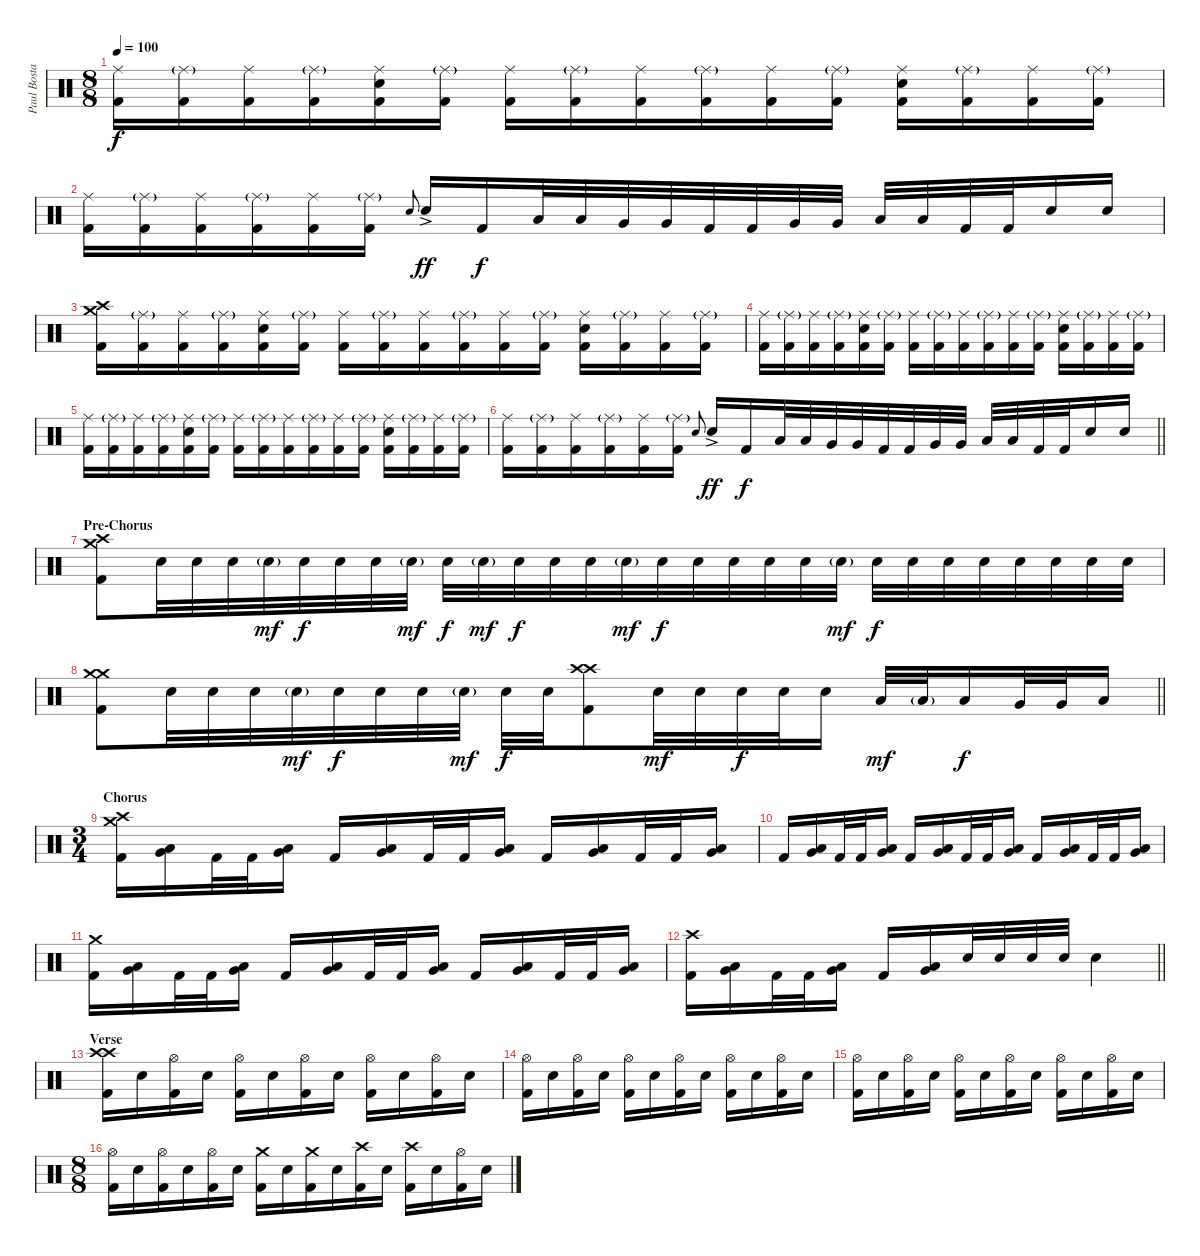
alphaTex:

\track ("Paul Bostaph (Last Album 2 Feature Paul)" "Paul Bosta") {instrument percussion}
\staff {score}
\articulation defaults
\ts (8 8)
\tempo 100
\clef neutral
\ks c
("Ride (middle)" "Kick (hit) 2").16{dy f} ("Ride (middle)"{g} "Kick (hit) 2").16 ("Ride (middle)" "Kick (hit) 2").16 ("Ride (middle)"{g} "Kick (hit) 2").16 ("Ride (middle)" "Electric Snare (hit)" "Kick (hit) 2").16 ("Ride (middle)"{g} "Kick (hit) 2").16 ("Ride (middle)" "Kick (hit) 2").16 ("Ride (middle)"{g} "Kick (hit) 2").16 ("Ride (middle)" "Kick (hit) 2").16 ("Ride (middle)"{g} "Kick (hit) 2").16 ("Ride (middle)" "Kick (hit) 2").16 ("Ride (middle)"{g} "Kick (hit) 2").16 ("Ride (middle)" "Electric Snare (hit)" "Kick (hit) 2").16 ("Ride (middle)"{g} "Kick (hit) 2").16 ("Ride (middle)" "Kick (hit) 2").16 ("Ride (middle)"{g} "Kick (hit) 2").16 |
("Ride (middle)" "Kick (hit) 2").16 ("Ride (middle)"{g} "Kick (hit) 2").16 ("Ride (middle)" "Kick (hit) 2").16 ("Ride (middle)"{g} "Kick (hit) 2").16 ("Ride (middle)" "Kick (hit) 2").16 ("Ride (middle)"{g} "Kick (hit) 2").16 "Electric Snare (hit)".8{gr onbeat} "Electric Snare (hit)"{ac}.16{dy ff} "Kick (hit) 2".16{dy f} "Low Tom (hit)".32 "Low Tom (hit)".32 "Very Low Tom (hit)".32 "Very Low Tom (hit)".32 "Kick (hit) 2".32 "Kick (hit) 2".32 "Very Low Tom (hit)".32 "Very Low Tom (hit)".32 "Low Floor Tom (hit)".32 "Low Floor Tom (hit)".32 "Kick (hit) 2".32 "Kick (hit) 2".32 "Electric Snare (hit)".16 "Electric Snare (hit)".16 |
("Crash medium (hit)" "Crash high (hit)" "Kick (hit) 2").16 ("Ride (middle)"{g} "Kick (hit) 2").16 ("Ride (middle)" "Kick (hit) 2").16 ("Ride (middle)"{g} "Kick (hit) 2").16 ("Ride (middle)" "Electric Snare (hit)" "Kick (hit) 2").16 ("Ride (middle)"{g} "Kick (hit) 2").16 ("Ride (middle)" "Kick (hit) 2").16 ("Ride (middle)"{g} "Kick (hit) 2").16 ("Ride (middle)" "Kick (hit) 2").16 ("Ride (middle)"{g} "Kick (hit) 2").16 ("Ride (middle)" "Kick (hit) 2").16 ("Ride (middle)"{g} "Kick (hit) 2").16 ("Ride (middle)" "Electric Snare (hit)" "Kick (hit) 2").16 ("Ride (middle)"{g} "Kick (hit) 2").16 ("Ride (middle)" "Kick (hit) 2").16 ("Ride (middle)"{g} "Kick (hit) 2").16 |
("Ride (middle)" "Kick (hit) 2").16 ("Ride (middle)"{g} "Kick (hit) 2").16 ("Ride (middle)" "Kick (hit) 2").16 ("Ride (middle)"{g} "Kick (hit) 2").16 ("Ride (middle)" "Electric Snare (hit)" "Kick (hit) 2").16 ("Ride (middle)"{g} "Kick (hit) 2").16 ("Ride (middle)" "Kick (hit) 2").16 ("Ride (middle)"{g} "Kick (hit) 2").16 ("Ride (middle)" "Kick (hit) 2").16 ("Ride (middle)"{g} "Kick (hit) 2").16 ("Ride (middle)" "Kick (hit) 2").16 ("Ride (middle)"{g} "Kick (hit) 2").16 ("Ride (middle)" "Electric Snare (hit)" "Kick (hit) 2").16 ("Ride (middle)"{g} "Kick (hit) 2").16 ("Ride (middle)" "Kick (hit) 2").16 ("Ride (middle)"{g} "Kick (hit) 2").16 |
("Ride (middle)" "Kick (hit) 2").16 ("Ride (middle)"{g} "Kick (hit) 2").16 ("Ride (middle)" "Kick (hit) 2").16 ("Ride (middle)"{g} "Kick (hit) 2").16 ("Ride (middle)" "Electric Snare (hit)" "Kick (hit) 2").16 ("Ride (middle)"{g} "Kick (hit) 2").16 ("Ride (middle)" "Kick (hit) 2").16 ("Ride (middle)"{g} "Kick (hit) 2").16 ("Ride (middle)" "Kick (hit) 2").16 ("Ride (middle)"{g} "Kick (hit) 2").16 ("Ride (middle)" "Kick (hit) 2").16 ("Ride (middle)"{g} "Kick (hit) 2").16 ("Ride (middle)" "Electric Snare (hit)" "Kick (hit) 2").16 ("Ride (middle)"{g} "Kick (hit) 2").16 ("Ride (middle)" "Kick (hit) 2").16 ("Ride (middle)"{g} "Kick (hit) 2").16 |
\barLineRight lightlight
("Ride (middle)" "Kick (hit) 2").16 ("Ride (middle)"{g} "Kick (hit) 2").16 ("Ride (middle)" "Kick (hit) 2").16 ("Ride (middle)"{g} "Kick (hit) 2").16 ("Ride (middle)" "Kick (hit) 2").16 ("Ride (middle)"{g} "Kick (hit) 2").16 "Electric Snare (hit)".8{gr onbeat} "Electric Snare (hit)"{ac}.16{dy ff} "Kick (hit) 2".16{dy f} "Low Tom (hit)".32 "Low Tom (hit)".32 "Very Low Tom (hit)".32 "Very Low Tom (hit)".32 "Kick (hit) 2".32 "Kick (hit) 2".32 "Very Low Tom (hit)".32 "Very Low Tom (hit)".32 "Low Floor Tom (hit)".32 "Low Floor Tom (hit)".32 "Kick (hit) 2".32 "Kick (hit) 2".32 "Electric Snare (hit)".16 "Electric Snare (hit)".16 |
\section ("" "Pre-Chorus")
("Crash high (hit)" "Crash medium (hit)" "Kick (hit) 2").8 "Electric Snare (hit)".32 "Electric Snare (hit)".32 "Electric Snare (hit)".32 "Electric Snare (hit)"{g}.32{dy mf} "Electric Snare (hit)".32{dy f} "Electric Snare (hit)".32 "Electric Snare (hit)".32 "Electric Snare (hit)"{g}.32{dy mf} "Electric Snare (hit)".32{dy f} "Electric Snare (hit)"{g}.32{dy mf} "Electric Snare (hit)".32{dy f} "Electric Snare (hit)".32 "Electric Snare (hit)".32 "Electric Snare (hit)"{g}.32{dy mf} "Electric Snare (hit)".32{dy f} "Electric Snare (hit)".32 "Electric Snare (hit)".32 "Electric Snare (hit)".32 "Electric Snare (hit)".32 "Electric Snare (hit)"{g}.32{dy mf} "Electric Snare (hit)".32{dy f} "Electric Snare (hit)".32 "Electric Snare (hit)".32 "Electric Snare (hit)".32 "Electric Snare (hit)".32 "Electric Snare (hit)".32 "Electric Snare (hit)".32 "Electric Snare (hit)".32 |
\barLineRight lightlight
("Crash medium (hit)" "Crash medium (hit)" "Kick (hit) 2").8 "Electric Snare (hit)".32 "Electric Snare (hit)".32 "Electric Snare (hit)".32 "Electric Snare (hit)"{g}.32{dy mf} "Electric Snare (hit)".32{dy f} "Electric Snare (hit)".32 "Electric Snare (hit)".32 "Electric Snare (hit)"{g}.32{dy mf} "Electric Snare (hit)".32{dy f} "Electric Snare (hit)".32 ("Crash high (hit)" "Crash high (hit)" "Kick (hit) 2").8 "Electric Snare (hit)".32{dy mf} "Electric Snare (hit)".32 "Electric Snare (hit)".32{dy f} "Electric Snare (hit)".32 "Electric Snare (hit)".16 "Low Tom (hit)".32{dy mf} "Low Tom (hit)"{g}.32 "Low Tom (hit)".16{dy f} "Very Low Tom (hit)".32 "Very Low Tom (hit)".32 "Low Floor Tom (hit)".16 |
\ts (3 4)
\section ("" "Chorus")
("Crash high (hit)" "Crash medium (hit)" "Kick (hit) 2").16 ("Very Low Tom (hit)" "Low Floor Tom (hit)").16 "Kick (hit) 2".32 "Kick (hit) 2".32 ("Very Low Tom (hit)" "Low Floor Tom (hit)").16 "Kick (hit) 2".16 ("Very Low Tom (hit)" "Low Floor Tom (hit)").16 "Kick (hit) 2".32 "Kick (hit) 2".32 ("Very Low Tom (hit)" "Low Floor Tom (hit)").16 "Kick (hit) 2".16 ("Very Low Tom (hit)" "Low Floor Tom (hit)").16 "Kick (hit) 2".32 "Kick (hit) 2".32 ("Very Low Tom (hit)" "Low Floor Tom (hit)").16 |
"Kick (hit) 2".16 ("Very Low Tom (hit)" "Low Floor Tom (hit)").16 "Kick (hit) 2".32 "Kick (hit) 2".32 ("Very Low Tom (hit)" "Low Floor Tom (hit)").16 "Kick (hit) 2".16 ("Very Low Tom (hit)" "Low Floor Tom (hit)").16 "Kick (hit) 2".32 "Kick (hit) 2".32 ("Very Low Tom (hit)" "Low Floor Tom (hit)").16 "Kick (hit) 2".16 ("Very Low Tom (hit)" "Low Floor Tom (hit)").16 "Kick (hit) 2".32 "Kick (hit) 2".32 ("Very Low Tom (hit)" "Low Floor Tom (hit)").16 |
("Crash medium (hit)" "Kick (hit) 2").16 ("Very Low Tom (hit)" "Low Floor Tom (hit)").16 "Kick (hit) 2".32 "Kick (hit) 2".32 ("Very Low Tom (hit)" "Low Floor Tom (hit)").16 "Kick (hit) 2".16 ("Very Low Tom (hit)" "Low Floor Tom (hit)").16 "Kick (hit) 2".32 "Kick (hit) 2".32 ("Very Low Tom (hit)" "Low Floor Tom (hit)").16 "Kick (hit) 2".16 ("Very Low Tom (hit)" "Low Floor Tom (hit)").16 "Kick (hit) 2".32 "Kick (hit) 2".32 ("Very Low Tom (hit)" "Low Floor Tom (hit)").16 |
\barLineRight lightlight
("Crash high (hit)" "Kick (hit) 2").16 ("Very Low Tom (hit)" "Low Floor Tom (hit)").16 "Kick (hit) 2".32 "Kick (hit) 2".32 ("Very Low Tom (hit)" "Low Floor Tom (hit)").16 "Kick (hit) 2".16 ("Very Low Tom (hit)" "Low Floor Tom (hit)").16 "Electric Snare (hit)".32 "Electric Snare (hit)".32 "Electric Snare (hit)".32 "Electric Snare (hit)".32 "Electric Snare (hit)".4 |
\section ("" "Verse")
("Crash high (hit)" "Crash high (hit)" "Kick (hit) 2").16 "Electric Snare (hit)".16 ("Hi-Hat (open)" "Kick (hit) 2").16 "Electric Snare (hit)".16 ("Hi-Hat (open)" "Kick (hit) 2").16 "Electric Snare (hit)".16 ("Hi-Hat (open)" "Kick (hit) 2").16 "Electric Snare (hit)".16 ("Hi-Hat (open)" "Kick (hit) 2").16 "Electric Snare (hit)".16 ("Hi-Hat (open)" "Kick (hit) 2").16 "Electric Snare (hit)".16 |
("Hi-Hat (open)" "Kick (hit) 2").16 "Electric Snare (hit)".16 ("Hi-Hat (open)" "Kick (hit) 2").16 "Electric Snare (hit)".16 ("Hi-Hat (open)" "Kick (hit) 2").16 "Electric Snare (hit)".16 ("Hi-Hat (open)" "Kick (hit) 2").16 "Electric Snare (hit)".16 ("Hi-Hat (open)" "Kick (hit) 2").16 "Electric Snare (hit)".16 ("Hi-Hat (open)" "Kick (hit) 2").16 "Electric Snare (hit)".16 |
("Hi-Hat (open)" "Kick (hit) 2").16 "Electric Snare (hit)".16 ("Hi-Hat (open)" "Kick (hit) 2").16 "Electric Snare (hit)".16 ("Hi-Hat (open)" "Kick (hit) 2").16 "Electric Snare (hit)".16 ("Hi-Hat (open)" "Kick (hit) 2").16 "Electric Snare (hit)".16 ("Hi-Hat (open)" "Kick (hit) 2").16 "Electric Snare (hit)".16 ("Hi-Hat (open)" "Kick (hit) 2").16 "Electric Snare (hit)".16 |
\ts (8 8)
("Hi-Hat (open)" "Kick (hit) 2").16 "Electric Snare (hit)".16 ("Hi-Hat (open)" "Kick (hit) 2").16 "Electric Snare (hit)".16 ("Hi-Hat (open)" "Kick (hit) 2").16 "Electric Snare (hit)".16 ("Crash medium (hit)" "Kick (hit) 2").16 "Electric Snare (hit)".16 ("Crash medium (hit)" "Kick (hit) 2").16 "Electric Snare (hit)".16 ("Crash high (hit)" "Kick (hit) 2").16 "Electric Snare (hit)".16 ("Crash high (hit)" "Kick (hit) 2").16 "Electric Snare (hit)".16 ("Hi-Hat (open)" "Kick (hit) 2").16 "Electric Snare (hit)".16
